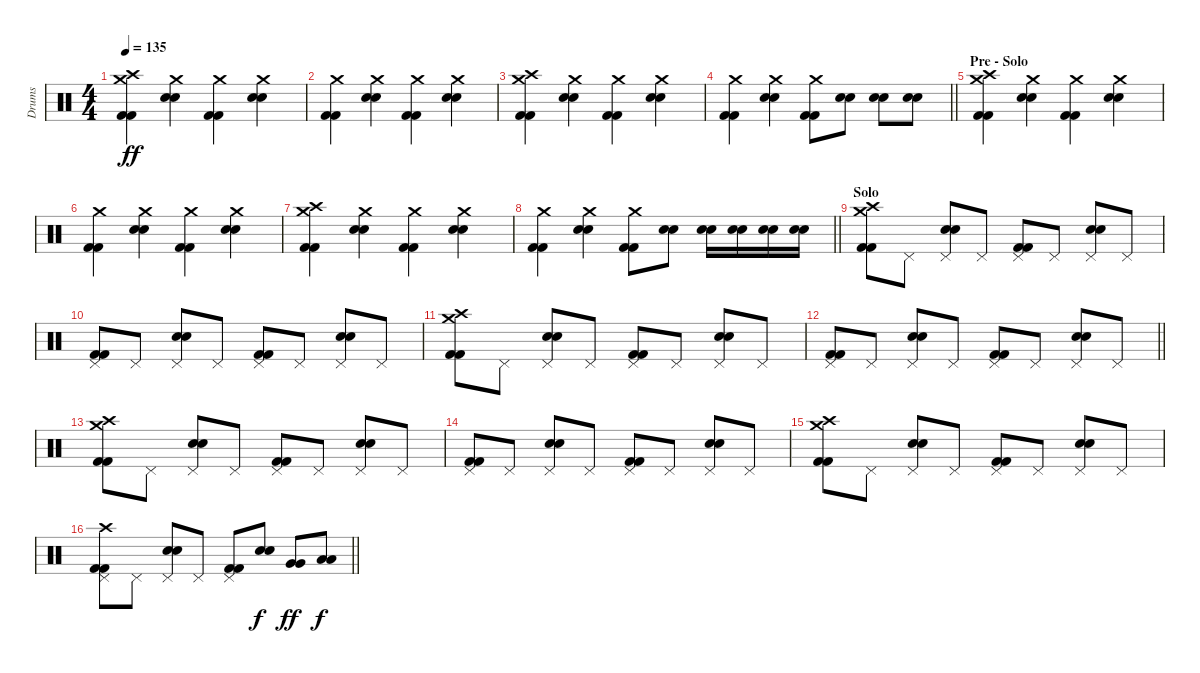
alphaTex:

\track ("Drums" "Drums") {instrument percussion}
\staff {score}
\articulation defaults
\ts (4 4)
\tempo 135
\clef neutral
\ks c
("Crash high (hit)" "Crash medium (hit)" "Kick (hit) 2" "Kick (hit) 2").4{dy ff} ("Crash medium (hit)" "Electric Snare (hit)" "Electric Snare (hit)").4 ("Crash medium (hit)" "Kick (hit) 2" "Kick (hit) 2").4 ("Crash medium (hit)" "Electric Snare (hit)" "Electric Snare (hit)").4 |
("Crash medium (hit)" "Kick (hit) 2" "Kick (hit) 2").4 ("Crash medium (hit)" "Electric Snare (hit)" "Electric Snare (hit)").4 ("Crash medium (hit)" "Kick (hit) 2" "Kick (hit) 2").4 ("Crash medium (hit)" "Electric Snare (hit)" "Electric Snare (hit)").4 |
("Crash high (hit)" "Crash medium (hit)" "Kick (hit) 2" "Kick (hit) 2").4 ("Crash medium (hit)" "Electric Snare (hit)" "Electric Snare (hit)").4 ("Crash medium (hit)" "Kick (hit) 2" "Kick (hit) 2").4 ("Crash medium (hit)" "Electric Snare (hit)" "Electric Snare (hit)").4 |
\barLineRight lightlight
("Crash medium (hit)" "Kick (hit) 2" "Kick (hit) 2").4 ("Crash medium (hit)" "Electric Snare (hit)" "Electric Snare (hit)").4 ("Crash medium (hit)" "Kick (hit) 2" "Kick (hit) 2").8 ("Electric Snare (hit)" "Electric Snare (hit)").8 ("Electric Snare (hit)" "Electric Snare (hit)").8 ("Electric Snare (hit)" "Electric Snare (hit)").8 |
\section ("" "Pre - Solo ")
("Crash high (hit)" "Crash medium (hit)" "Kick (hit) 2" "Kick (hit) 2").4 ("Crash medium (hit)" "Electric Snare (hit)" "Electric Snare (hit)").4 ("Crash medium (hit)" "Kick (hit) 2" "Kick (hit) 2").4 ("Crash medium (hit)" "Electric Snare (hit)" "Electric Snare (hit)").4 |
("Crash medium (hit)" "Kick (hit) 2" "Kick (hit) 2").4 ("Crash medium (hit)" "Electric Snare (hit)" "Electric Snare (hit)").4 ("Crash medium (hit)" "Kick (hit) 2" "Kick (hit) 2").4 ("Crash medium (hit)" "Electric Snare (hit)" "Electric Snare (hit)").4 |
("Crash high (hit)" "Crash medium (hit)" "Kick (hit) 2" "Kick (hit) 2").4 ("Crash medium (hit)" "Electric Snare (hit)" "Electric Snare (hit)").4 ("Crash medium (hit)" "Kick (hit) 2" "Kick (hit) 2").4 ("Crash medium (hit)" "Electric Snare (hit)" "Electric Snare (hit)").4 |
\barLineRight lightlight
("Crash medium (hit)" "Kick (hit) 2" "Kick (hit) 2").4 ("Crash medium (hit)" "Electric Snare (hit)" "Electric Snare (hit)").4 ("Crash medium (hit)" "Kick (hit) 2" "Kick (hit) 2").8 ("Electric Snare (hit)" "Electric Snare (hit)").8 ("Electric Snare (hit)" "Electric Snare (hit)").16 ("Electric Snare (hit)" "Electric Snare (hit)").16 ("Electric Snare (hit)" "Electric Snare (hit)").16 ("Electric Snare (hit)" "Electric Snare (hit)").16 |
\section ("" "Solo")
("Crash high (hit)" "Crash medium (hit)" "Kick (hit) 2" "Kick (hit) 2").8 "Pedal Hi-Hat (hit)".8 ("Pedal Hi-Hat (hit)" "Electric Snare (hit)" "Electric Snare (hit)").8 "Pedal Hi-Hat (hit)".8 ("Pedal Hi-Hat (hit)" "Kick (hit) 2" "Kick (hit) 2").8 "Pedal Hi-Hat (hit)".8 ("Pedal Hi-Hat (hit)" "Electric Snare (hit)" "Electric Snare (hit)").8 "Pedal Hi-Hat (hit)".8 |
("Pedal Hi-Hat (hit)" "Kick (hit) 2" "Kick (hit) 2").8 "Pedal Hi-Hat (hit)".8 ("Pedal Hi-Hat (hit)" "Electric Snare (hit)" "Electric Snare (hit)").8 "Pedal Hi-Hat (hit)".8 ("Pedal Hi-Hat (hit)" "Kick (hit) 2" "Kick (hit) 2").8 "Pedal Hi-Hat (hit)".8 ("Pedal Hi-Hat (hit)" "Electric Snare (hit)" "Electric Snare (hit)").8 "Pedal Hi-Hat (hit)".8 |
("Crash high (hit)" "Crash medium (hit)" "Kick (hit) 2" "Kick (hit) 2").8 "Pedal Hi-Hat (hit)".8 ("Pedal Hi-Hat (hit)" "Electric Snare (hit)" "Electric Snare (hit)").8 "Pedal Hi-Hat (hit)".8 ("Pedal Hi-Hat (hit)" "Kick (hit) 2" "Kick (hit) 2").8 "Pedal Hi-Hat (hit)".8 ("Pedal Hi-Hat (hit)" "Electric Snare (hit)" "Electric Snare (hit)").8 "Pedal Hi-Hat (hit)".8 |
\barLineRight lightlight
("Pedal Hi-Hat (hit)" "Kick (hit) 2" "Kick (hit) 2").8 "Pedal Hi-Hat (hit)".8 ("Pedal Hi-Hat (hit)" "Electric Snare (hit)" "Electric Snare (hit)").8 "Pedal Hi-Hat (hit)".8 ("Pedal Hi-Hat (hit)" "Kick (hit) 2" "Kick (hit) 2").8 "Pedal Hi-Hat (hit)".8 ("Pedal Hi-Hat (hit)" "Electric Snare (hit)" "Electric Snare (hit)").8 "Pedal Hi-Hat (hit)".8 |
("Crash high (hit)" "Crash medium (hit)" "Kick (hit) 2" "Kick (hit) 2").8 "Pedal Hi-Hat (hit)".8 ("Pedal Hi-Hat (hit)" "Electric Snare (hit)" "Electric Snare (hit)").8 "Pedal Hi-Hat (hit)".8 ("Pedal Hi-Hat (hit)" "Kick (hit) 2" "Kick (hit) 2").8 "Pedal Hi-Hat (hit)".8 ("Pedal Hi-Hat (hit)" "Electric Snare (hit)" "Electric Snare (hit)").8 "Pedal Hi-Hat (hit)".8 |
("Pedal Hi-Hat (hit)" "Kick (hit) 2" "Kick (hit) 2").8 "Pedal Hi-Hat (hit)".8 ("Pedal Hi-Hat (hit)" "Electric Snare (hit)" "Electric Snare (hit)").8 "Pedal Hi-Hat (hit)".8 ("Pedal Hi-Hat (hit)" "Kick (hit) 2" "Kick (hit) 2").8 "Pedal Hi-Hat (hit)".8 ("Pedal Hi-Hat (hit)" "Electric Snare (hit)" "Electric Snare (hit)").8 "Pedal Hi-Hat (hit)".8 |
("Crash high (hit)" "Crash medium (hit)" "Kick (hit) 2" "Kick (hit) 2").8 "Pedal Hi-Hat (hit)".8 ("Pedal Hi-Hat (hit)" "Electric Snare (hit)" "Electric Snare (hit)").8 "Pedal Hi-Hat (hit)".8 ("Pedal Hi-Hat (hit)" "Kick (hit) 2" "Kick (hit) 2").8 "Pedal Hi-Hat (hit)".8 ("Pedal Hi-Hat (hit)" "Electric Snare (hit)" "Electric Snare (hit)").8 "Pedal Hi-Hat (hit)".8 |
\barLineRight lightlight
("Crash high (hit)" "Pedal Hi-Hat (hit)" "Kick (hit) 2" "Kick (hit) 2").8 "Pedal Hi-Hat (hit)".8 ("Pedal Hi-Hat (hit)" "Electric Snare (hit)" "Electric Snare (hit)").8 "Pedal Hi-Hat (hit)".8 ("Pedal Hi-Hat (hit)" "Kick (hit) 2" "Kick (hit) 2").8 ("Electric Snare (hit)" "Electric Snare (hit)").8{dy f} ("Very Low Tom (hit)" "Very Low Tom (hit)").8{dy ff} ("Low Floor Tom (hit)" "Low Floor Tom (hit)").8{dy f}
